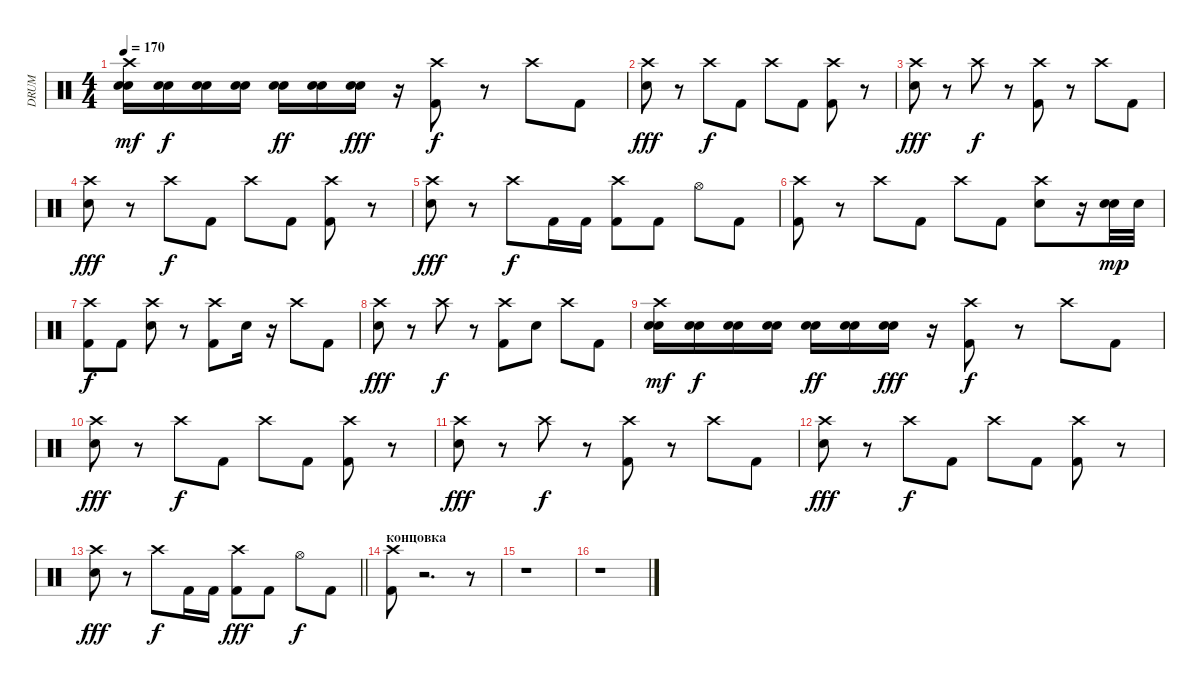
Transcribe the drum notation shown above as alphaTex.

\track ("DRUM" "DRUM") {instrument percussion}
\staff {score}
\articulation defaults
\ts (4 4)
\tempo 170
\clef neutral
\ks c
("Snare (hit) 2" "Electric Snare (hit)" "Crash high (hit)").16{dy mf} ("Snare (hit) 2" "Electric Snare (hit)").16{dy f} ("Snare (hit) 2" "Electric Snare (hit)").16 ("Snare (hit) 2" "Electric Snare (hit)").16 ("Snare (hit) 2" "Electric Snare (hit)").16{dy ff} ("Snare (hit) 2" "Electric Snare (hit)").16 ("Snare (hit) 2" "Electric Snare (hit)").16{dy fff} r.16 ("Crash high (hit)" "Kick (hit) 2").8{dy f} r.8 "Crash high (hit)".8 "Kick (hit) 2".8 |
("Crash high (hit)" "Snare (hit) 2").8{dy fff} r.8 "Crash high (hit)".8{dy f} "Kick (hit) 2".8 "Crash high (hit)".8 "Kick (hit) 2".8 ("Crash high (hit)" "Kick (hit) 2").8 r.8 |
("Crash high (hit)" "Snare (hit) 2").8{dy fff} r.8 "Crash high (hit)".8{dy f} r.8 ("Crash high (hit)" "Kick (hit) 2").8 r.8 "Crash high (hit)".8 "Kick (hit) 2".8 |
("Crash high (hit)" "Snare (hit) 2").8{dy fff} r.8 "Crash high (hit)".8{dy f} "Kick (hit) 2".8 "Crash high (hit)".8 "Kick (hit) 2".8 ("Crash high (hit)" "Kick (hit) 2").8 r.8 |
("Crash high (hit)" "Snare (hit) 2").8{dy fff} r.8 "Crash high (hit)".8{dy f} "Kick (hit) 2".16 "Kick (hit) 2".16 ("Crash high (hit)" "Kick (hit) 2").8 "Kick (hit) 2".8 "Hi-Hat (open)".8 "Kick (hit) 2".8 |
("Kick (hit) 2" "Crash high (hit)").8 r.8 "Crash high (hit)".8 "Kick (hit) 2".8 "Crash high (hit)".8 "Kick (hit) 2".8 ("Snare (hit) 2" "Crash high (hit)").8 r.16 ("Snare (hit) 2" "Snare (hit) 2").32{dy mp} "Snare (hit) 2".32 |
("Kick (hit) 2" "Crash high (hit)").8{dy f} "Kick (hit) 2".8 ("Snare (hit) 2" "Crash high (hit)").8 r.8 ("Crash high (hit)" "Kick (hit) 2").8 "Electric Snare (hit)".16 r.16 "Crash high (hit)".8 "Kick (hit) 2".8 |
("Snare (hit) 2" "Crash high (hit)").8{dy fff} r.8 "Crash high (hit)".8{dy f} r.8 ("Kick (hit) 2" "Crash high (hit)").8 "Snare (hit) 2".8 "Crash high (hit)".8 "Kick (hit) 2".8 |
("Snare (hit) 2" "Electric Snare (hit)" "Crash high (hit)").16{dy mf} ("Snare (hit) 2" "Electric Snare (hit)").16{dy f} ("Snare (hit) 2" "Electric Snare (hit)").16 ("Snare (hit) 2" "Electric Snare (hit)").16 ("Snare (hit) 2" "Electric Snare (hit)").16{dy ff} ("Snare (hit) 2" "Electric Snare (hit)").16 ("Snare (hit) 2" "Electric Snare (hit)").16{dy fff} r.16 ("Crash high (hit)" "Kick (hit) 2").8{dy f} r.8 "Crash high (hit)".8 "Kick (hit) 2".8 |
("Crash high (hit)" "Snare (hit) 2").8{dy fff} r.8 "Crash high (hit)".8{dy f} "Kick (hit) 2".8 "Crash high (hit)".8 "Kick (hit) 2".8 ("Crash high (hit)" "Kick (hit) 2").8 r.8 |
("Crash high (hit)" "Snare (hit) 2").8{dy fff} r.8 "Crash high (hit)".8{dy f} r.8 ("Crash high (hit)" "Kick (hit) 2").8 r.8 "Crash high (hit)".8 "Kick (hit) 2".8 |
("Crash high (hit)" "Snare (hit) 2").8{dy fff} r.8 "Crash high (hit)".8{dy f} "Kick (hit) 2".8 "Crash high (hit)".8 "Kick (hit) 2".8 ("Crash high (hit)" "Kick (hit) 2").8 r.8 |
\barLineRight lightlight
("Crash high (hit)" "Snare (hit) 2").8{dy fff} r.8 "Crash high (hit)".8{dy f} "Kick (hit) 2".16 "Kick (hit) 2".16 ("Kick (hit) 2" "Crash high (hit)").8{dy fff} "Kick (hit) 2".8 "Hi-Hat (open)".8{dy f} "Kick (hit) 2".8 |
\section ("" "концовка")
("Kick (hit) 2" "Crash high (hit)").8 r.2{d} r.8 |
r.1 |
r.1
